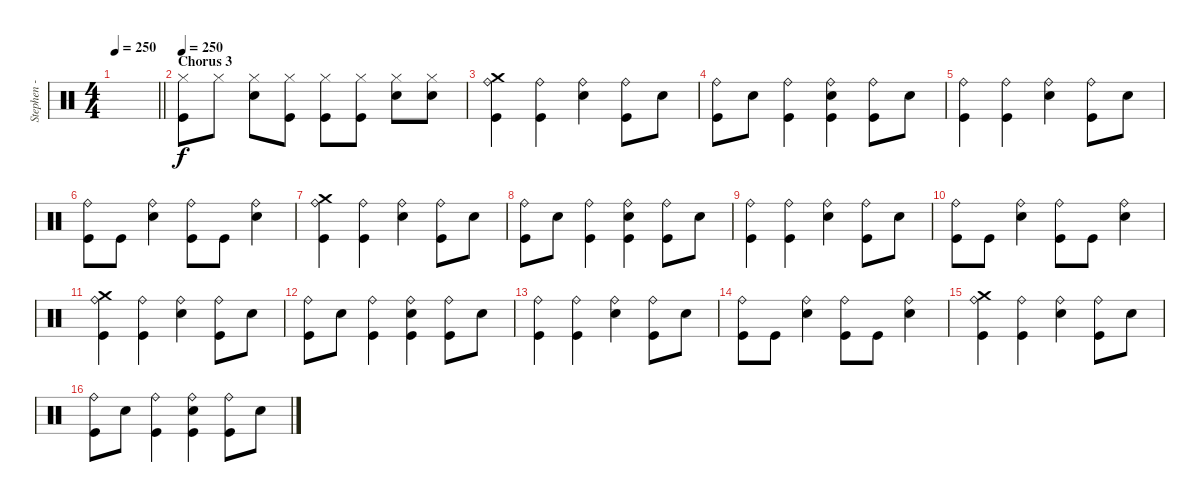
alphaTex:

\track ("Stephen - Drums" "Stephen - ") {instrument percussion}
\staff {score}
\articulation defaults
\ts (4 4)
\tempo 250
\clef neutral
\barLineRight lightlight
\ks c
|
\section ("" "Chorus 3")
\tempo 250
("Hi-Hat (closed)" "Kick (hit)").8 "Hi-Hat (closed)".8 ("Hi-Hat (closed)" "Snare (hit) 2").8 ("Hi-Hat (closed)" "Kick (hit)").8 ("Hi-Hat (closed)" "Kick (hit)").8 ("Hi-Hat (closed)" "Kick (hit)").8 ("Hi-Hat (closed)" "Snare (hit) 2").8 ("Hi-Hat (closed)" "Snare (hit) 2").8 |
("Crash medium (hit)" "Ride (bell)" "Kick (hit)").4 ("Ride (bell)" "Kick (hit)").4 ("Snare (hit) 2" "Ride (bell)").4 ("Ride (bell)" "Kick (hit)").8 "Snare (hit) 2".8 |
("Ride (bell)" "Kick (hit)").8 "Snare (hit) 2".8 ("Ride (bell)" "Kick (hit)").4 ("Snare (hit) 2" "Ride (bell)" "Kick (hit)").4 ("Ride (bell)" "Kick (hit)").8 "Snare (hit) 2".8 |
("Ride (bell)" "Kick (hit)").4 ("Ride (bell)" "Kick (hit)").4 ("Snare (hit) 2" "Ride (bell)").4 ("Ride (bell)" "Kick (hit)").8 "Snare (hit) 2".8 |
("Ride (bell)" "Kick (hit)").8 "Kick (hit)".8 ("Snare (hit) 2" "Ride (bell)").4 ("Ride (bell)" "Kick (hit)").8 "Kick (hit)".8 ("Snare (hit) 2" "Ride (bell)").4 |
("Crash medium (hit)" "Ride (bell)" "Kick (hit)").4 ("Ride (bell)" "Kick (hit)").4 ("Snare (hit) 2" "Ride (bell)").4 ("Ride (bell)" "Kick (hit)").8 "Snare (hit) 2".8 |
("Ride (bell)" "Kick (hit)").8 "Snare (hit) 2".8 ("Ride (bell)" "Kick (hit)").4 ("Snare (hit) 2" "Ride (bell)" "Kick (hit)").4 ("Ride (bell)" "Kick (hit)").8 "Snare (hit) 2".8 |
("Ride (bell)" "Kick (hit)").4 ("Ride (bell)" "Kick (hit)").4 ("Snare (hit) 2" "Ride (bell)").4 ("Ride (bell)" "Kick (hit)").8 "Snare (hit) 2".8 |
("Ride (bell)" "Kick (hit)").8 "Kick (hit)".8 ("Snare (hit) 2" "Ride (bell)").4 ("Ride (bell)" "Kick (hit)").8 "Kick (hit)".8 ("Snare (hit) 2" "Ride (bell)").4 |
("Crash medium (hit)" "Ride (bell)" "Kick (hit)").4 ("Ride (bell)" "Kick (hit)").4 ("Snare (hit) 2" "Ride (bell)").4 ("Ride (bell)" "Kick (hit)").8 "Snare (hit) 2".8 |
("Ride (bell)" "Kick (hit)").8 "Snare (hit) 2".8 ("Ride (bell)" "Kick (hit)").4 ("Snare (hit) 2" "Ride (bell)" "Kick (hit)").4 ("Ride (bell)" "Kick (hit)").8 "Snare (hit) 2".8 |
("Ride (bell)" "Kick (hit)").4 ("Ride (bell)" "Kick (hit)").4 ("Snare (hit) 2" "Ride (bell)").4 ("Ride (bell)" "Kick (hit)").8 "Snare (hit) 2".8 |
("Ride (bell)" "Kick (hit)").8 "Kick (hit)".8 ("Snare (hit) 2" "Ride (bell)").4 ("Ride (bell)" "Kick (hit)").8 "Kick (hit)".8 ("Snare (hit) 2" "Ride (bell)").4 |
("Crash medium (hit)" "Ride (bell)" "Kick (hit)").4 ("Ride (bell)" "Kick (hit)").4 ("Snare (hit) 2" "Ride (bell)").4 ("Ride (bell)" "Kick (hit)").8 "Snare (hit) 2".8 |
("Ride (bell)" "Kick (hit)").8 "Snare (hit) 2".8 ("Ride (bell)" "Kick (hit)").4 ("Snare (hit) 2" "Ride (bell)" "Kick (hit)").4 ("Ride (bell)" "Kick (hit)").8 "Snare (hit) 2".8
